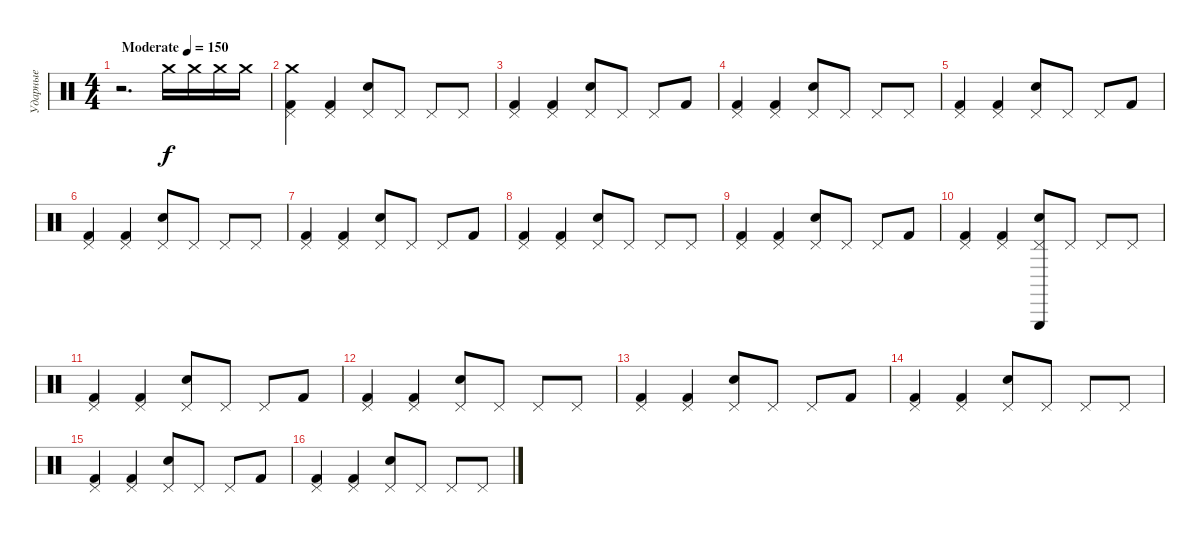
\track ("Ударные" "Ударные") {instrument percussion}
\staff {score}
\articulation defaults
\ts (4 4)
\tempo (150 "Moderate")
\clef neutral
\ks c
r.2{d dy f} "Crash medium (hit)".16 "Crash medium (hit)".16 "Crash medium (hit)".16 "Crash medium (hit)".16 |
("Crash medium (hit)" "Pedal Hi-Hat (hit)" "Kick (hit) 2").4 ("Pedal Hi-Hat (hit)" "Kick (hit) 2").4 ("Pedal Hi-Hat (hit)" "Snare (hit) 2").8 "Pedal Hi-Hat (hit)".8 "Pedal Hi-Hat (hit)".8 "Pedal Hi-Hat (hit)".8 |
("Pedal Hi-Hat (hit)" "Kick (hit) 2").4 ("Pedal Hi-Hat (hit)" "Kick (hit) 2").4 ("Pedal Hi-Hat (hit)" "Snare (hit) 2").8 "Pedal Hi-Hat (hit)".8 "Pedal Hi-Hat (hit)".8 "Kick (hit) 2".8 |
("Pedal Hi-Hat (hit)" "Kick (hit) 2").4 ("Pedal Hi-Hat (hit)" "Kick (hit) 2").4 ("Pedal Hi-Hat (hit)" "Snare (hit) 2").8 "Pedal Hi-Hat (hit)".8 "Pedal Hi-Hat (hit)".8 "Pedal Hi-Hat (hit)".8 |
("Pedal Hi-Hat (hit)" "Kick (hit) 2").4 ("Pedal Hi-Hat (hit)" "Kick (hit) 2").4 ("Pedal Hi-Hat (hit)" "Snare (hit) 2").8 "Pedal Hi-Hat (hit)".8 "Pedal Hi-Hat (hit)".8 "Kick (hit) 2".8 |
("Pedal Hi-Hat (hit)" "Kick (hit) 2").4 ("Pedal Hi-Hat (hit)" "Kick (hit) 2").4 ("Pedal Hi-Hat (hit)" "Snare (hit) 2").8 "Pedal Hi-Hat (hit)".8 "Pedal Hi-Hat (hit)".8 "Pedal Hi-Hat (hit)".8 |
("Pedal Hi-Hat (hit)" "Kick (hit) 2").4 ("Pedal Hi-Hat (hit)" "Kick (hit) 2").4 ("Pedal Hi-Hat (hit)" "Snare (hit) 2").8 "Pedal Hi-Hat (hit)".8 "Pedal Hi-Hat (hit)".8 "Kick (hit) 2".8 |
("Pedal Hi-Hat (hit)" "Kick (hit) 2").4 ("Pedal Hi-Hat (hit)" "Kick (hit) 2").4 ("Pedal Hi-Hat (hit)" "Snare (hit) 2").8 "Pedal Hi-Hat (hit)".8 "Pedal Hi-Hat (hit)".8 "Pedal Hi-Hat (hit)".8 |
("Pedal Hi-Hat (hit)" "Kick (hit) 2").4 ("Pedal Hi-Hat (hit)" "Kick (hit) 2").4 ("Pedal Hi-Hat (hit)" "Snare (hit) 2").8 "Pedal Hi-Hat (hit)".8 "Pedal Hi-Hat (hit)".8 "Kick (hit) 2".8 |
("Pedal Hi-Hat (hit)" "Kick (hit) 2").4 ("Pedal Hi-Hat (hit)" "Kick (hit) 2").4 ("Triangle (hit)" "Pedal Hi-Hat (hit)" "Snare (hit) 2").8 "Pedal Hi-Hat (hit)".8 "Pedal Hi-Hat (hit)".8 "Pedal Hi-Hat (hit)".8 |
("Pedal Hi-Hat (hit)" "Kick (hit) 2").4 ("Pedal Hi-Hat (hit)" "Kick (hit) 2").4 ("Pedal Hi-Hat (hit)" "Snare (hit) 2").8 "Pedal Hi-Hat (hit)".8 "Pedal Hi-Hat (hit)".8 "Kick (hit) 2".8 |
("Pedal Hi-Hat (hit)" "Kick (hit) 2").4 ("Pedal Hi-Hat (hit)" "Kick (hit) 2").4 ("Pedal Hi-Hat (hit)" "Snare (hit) 2").8 "Pedal Hi-Hat (hit)".8 "Pedal Hi-Hat (hit)".8 "Pedal Hi-Hat (hit)".8 |
("Pedal Hi-Hat (hit)" "Kick (hit) 2").4 ("Pedal Hi-Hat (hit)" "Kick (hit) 2").4 ("Pedal Hi-Hat (hit)" "Snare (hit) 2").8 "Pedal Hi-Hat (hit)".8 "Pedal Hi-Hat (hit)".8 "Kick (hit) 2".8 |
("Pedal Hi-Hat (hit)" "Kick (hit) 2").4 ("Pedal Hi-Hat (hit)" "Kick (hit) 2").4 ("Pedal Hi-Hat (hit)" "Snare (hit) 2").8 "Pedal Hi-Hat (hit)".8 "Pedal Hi-Hat (hit)".8 "Pedal Hi-Hat (hit)".8 |
("Pedal Hi-Hat (hit)" "Kick (hit) 2").4 ("Pedal Hi-Hat (hit)" "Kick (hit) 2").4 ("Pedal Hi-Hat (hit)" "Snare (hit) 2").8 "Pedal Hi-Hat (hit)".8 "Pedal Hi-Hat (hit)".8 "Kick (hit) 2".8 |
("Pedal Hi-Hat (hit)" "Kick (hit) 2").4 ("Pedal Hi-Hat (hit)" "Kick (hit) 2").4 ("Pedal Hi-Hat (hit)" "Snare (hit) 2").8 "Pedal Hi-Hat (hit)".8 "Pedal Hi-Hat (hit)".8 "Pedal Hi-Hat (hit)".8
